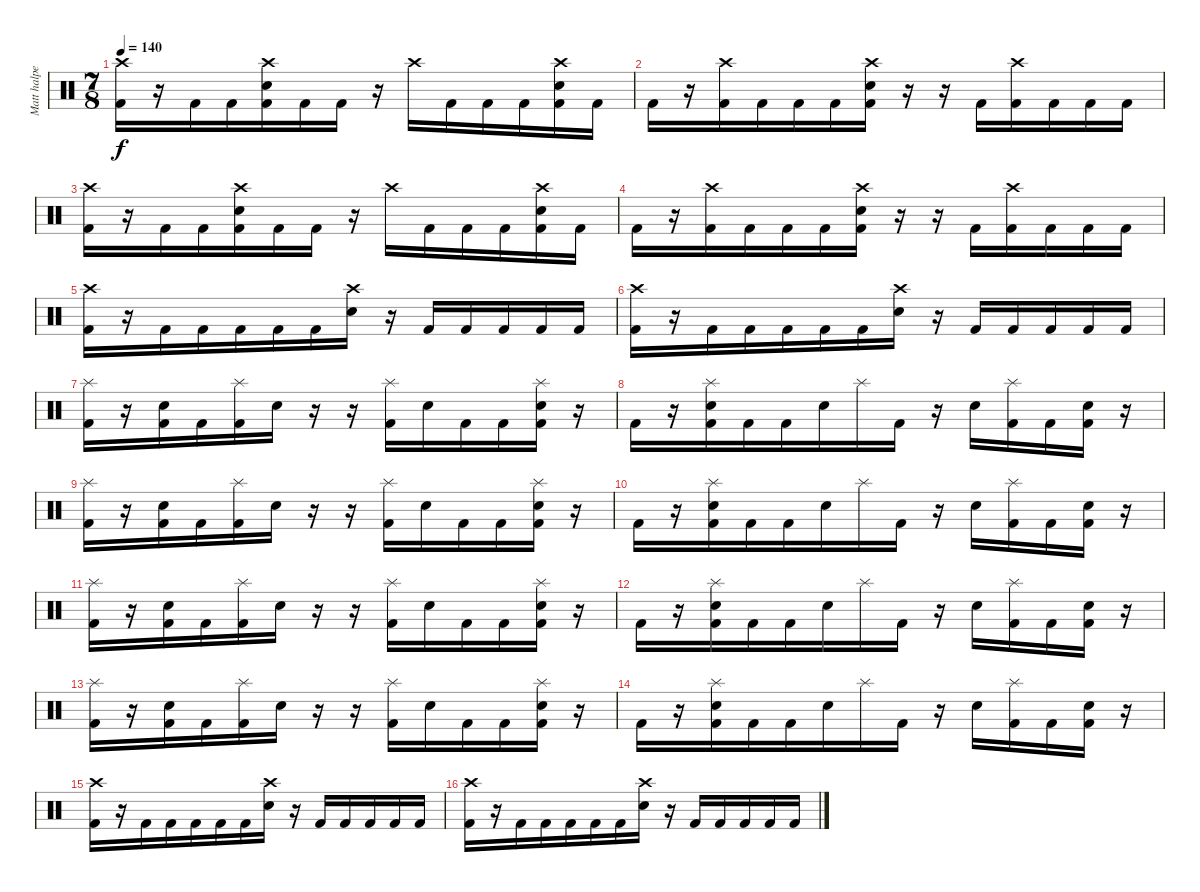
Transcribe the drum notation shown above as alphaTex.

\track ("Matt halpern" "Matt halpe") {instrument percussion}
\staff {score}
\articulation defaults
\ts (7 8)
\tempo 140
\clef neutral
\ks c
("Crash high (hit)" "Kick (hit) 2").16{dy f} r.16 "Kick (hit) 2".16 "Kick (hit) 2".16 ("Crash high (hit)" "Electric Snare (hit)" "Kick (hit) 2").16 "Kick (hit) 2".16 "Kick (hit) 2".16 r.16 "Crash high (hit)".16 "Kick (hit) 2".16 "Kick (hit) 2".16 "Kick (hit) 2".16 ("Crash high (hit)" "Electric Snare (hit)" "Kick (hit) 2").16 "Kick (hit) 2".16 |
"Kick (hit) 2".16 r.16 ("Crash high (hit)" "Kick (hit) 2").16 "Kick (hit) 2".16 "Kick (hit) 2".16 "Kick (hit) 2".16 ("Crash high (hit)" "Electric Snare (hit)" "Kick (hit) 2").16 r.16 r.16 "Kick (hit) 2".16 ("Crash high (hit)" "Kick (hit) 2").16 "Kick (hit) 2".16 "Kick (hit) 2".16 "Kick (hit) 2".16 |
("Crash high (hit)" "Kick (hit) 2").16 r.16 "Kick (hit) 2".16 "Kick (hit) 2".16 ("Crash high (hit)" "Electric Snare (hit)" "Kick (hit) 2").16 "Kick (hit) 2".16 "Kick (hit) 2".16 r.16 "Crash high (hit)".16 "Kick (hit) 2".16 "Kick (hit) 2".16 "Kick (hit) 2".16 ("Crash high (hit)" "Electric Snare (hit)" "Kick (hit) 2").16 "Kick (hit) 2".16 |
"Kick (hit) 2".16 r.16 ("Crash high (hit)" "Kick (hit) 2").16 "Kick (hit) 2".16 "Kick (hit) 2".16 "Kick (hit) 2".16 ("Crash high (hit)" "Electric Snare (hit)" "Kick (hit) 2").16 r.16 r.16 "Kick (hit) 2".16 ("Crash high (hit)" "Kick (hit) 2").16 "Kick (hit) 2".16 "Kick (hit) 2".16 "Kick (hit) 2".16 |
("Crash high (hit)" "Kick (hit) 2").16 r.16 "Kick (hit) 2".16 "Kick (hit) 2".16 "Kick (hit) 2".16 "Kick (hit) 2".16 "Kick (hit) 2".16 ("Crash high (hit)" "Electric Snare (hit)").16 r.16 "Kick (hit) 2".16 "Kick (hit) 2".16 "Kick (hit) 2".16 "Kick (hit) 2".16 "Kick (hit) 2".16 |
("Crash high (hit)" "Kick (hit) 2").16 r.16 "Kick (hit) 2".16 "Kick (hit) 2".16 "Kick (hit) 2".16 "Kick (hit) 2".16 "Kick (hit) 2".16 ("Crash high (hit)" "Electric Snare (hit)").16 r.16 "Kick (hit) 2".16 "Kick (hit) 2".16 "Kick (hit) 2".16 "Kick (hit) 2".16 "Kick (hit) 2".16 |
("Splash (hit)" "Kick (hit) 2").16 r.16 ("Electric Snare (hit)" "Kick (hit) 2").16 "Kick (hit) 2".16 ("Splash (hit)" "Kick (hit) 2").16 "Electric Snare (hit)".16 r.16 r.16 ("Splash (hit)" "Kick (hit) 2").16 "Electric Snare (hit)".16 "Kick (hit) 2".16 "Kick (hit) 2".16 ("Splash (hit)" "Electric Snare (hit)" "Kick (hit) 2").16 r.16 |
"Kick (hit) 2".16 r.16 ("Splash (hit)" "Electric Snare (hit)" "Kick (hit) 2").16 "Kick (hit) 2".16 "Kick (hit) 2".16 "Electric Snare (hit)".16 "Splash (hit)".16 "Kick (hit) 2".16 r.16 "Electric Snare (hit)".16 ("Splash (hit)" "Kick (hit) 2").16 "Kick (hit) 2".16 ("Electric Snare (hit)" "Kick (hit) 2").16 r.16 |
("Splash (hit)" "Kick (hit) 2").16 r.16 ("Electric Snare (hit)" "Kick (hit) 2").16 "Kick (hit) 2".16 ("Splash (hit)" "Kick (hit) 2").16 "Electric Snare (hit)".16 r.16 r.16 ("Splash (hit)" "Kick (hit) 2").16 "Electric Snare (hit)".16 "Kick (hit) 2".16 "Kick (hit) 2".16 ("Splash (hit)" "Electric Snare (hit)" "Kick (hit) 2").16 r.16 |
"Kick (hit) 2".16 r.16 ("Splash (hit)" "Electric Snare (hit)" "Kick (hit) 2").16 "Kick (hit) 2".16 "Kick (hit) 2".16 "Electric Snare (hit)".16 "Splash (hit)".16 "Kick (hit) 2".16 r.16 "Electric Snare (hit)".16 ("Splash (hit)" "Kick (hit) 2").16 "Kick (hit) 2".16 ("Electric Snare (hit)" "Kick (hit) 2").16 r.16 |
("Splash (hit)" "Kick (hit) 2").16 r.16 ("Electric Snare (hit)" "Kick (hit) 2").16 "Kick (hit) 2".16 ("Splash (hit)" "Kick (hit) 2").16 "Electric Snare (hit)".16 r.16 r.16 ("Splash (hit)" "Kick (hit) 2").16 "Electric Snare (hit)".16 "Kick (hit) 2".16 "Kick (hit) 2".16 ("Splash (hit)" "Electric Snare (hit)" "Kick (hit) 2").16 r.16 |
"Kick (hit) 2".16 r.16 ("Splash (hit)" "Electric Snare (hit)" "Kick (hit) 2").16 "Kick (hit) 2".16 "Kick (hit) 2".16 "Electric Snare (hit)".16 "Splash (hit)".16 "Kick (hit) 2".16 r.16 "Electric Snare (hit)".16 ("Splash (hit)" "Kick (hit) 2").16 "Kick (hit) 2".16 ("Electric Snare (hit)" "Kick (hit) 2").16 r.16 |
("Splash (hit)" "Kick (hit) 2").16 r.16 ("Electric Snare (hit)" "Kick (hit) 2").16 "Kick (hit) 2".16 ("Splash (hit)" "Kick (hit) 2").16 "Electric Snare (hit)".16 r.16 r.16 ("Splash (hit)" "Kick (hit) 2").16 "Electric Snare (hit)".16 "Kick (hit) 2".16 "Kick (hit) 2".16 ("Splash (hit)" "Electric Snare (hit)" "Kick (hit) 2").16 r.16 |
"Kick (hit) 2".16 r.16 ("Splash (hit)" "Electric Snare (hit)" "Kick (hit) 2").16 "Kick (hit) 2".16 "Kick (hit) 2".16 "Electric Snare (hit)".16 "Splash (hit)".16 "Kick (hit) 2".16 r.16 "Electric Snare (hit)".16 ("Splash (hit)" "Kick (hit) 2").16 "Kick (hit) 2".16 ("Electric Snare (hit)" "Kick (hit) 2").16 r.16 |
("Crash high (hit)" "Kick (hit) 2").16 r.16 "Kick (hit) 2".16 "Kick (hit) 2".16 "Kick (hit) 2".16 "Kick (hit) 2".16 "Kick (hit) 2".16 ("Crash high (hit)" "Electric Snare (hit)").16 r.16 "Kick (hit) 2".16 "Kick (hit) 2".16 "Kick (hit) 2".16 "Kick (hit) 2".16 "Kick (hit) 2".16 |
("Crash high (hit)" "Kick (hit) 2").16 r.16 "Kick (hit) 2".16 "Kick (hit) 2".16 "Kick (hit) 2".16 "Kick (hit) 2".16 "Kick (hit) 2".16 ("Crash high (hit)" "Electric Snare (hit)").16 r.16 "Kick (hit) 2".16 "Kick (hit) 2".16 "Kick (hit) 2".16 "Kick (hit) 2".16 "Kick (hit) 2".16
